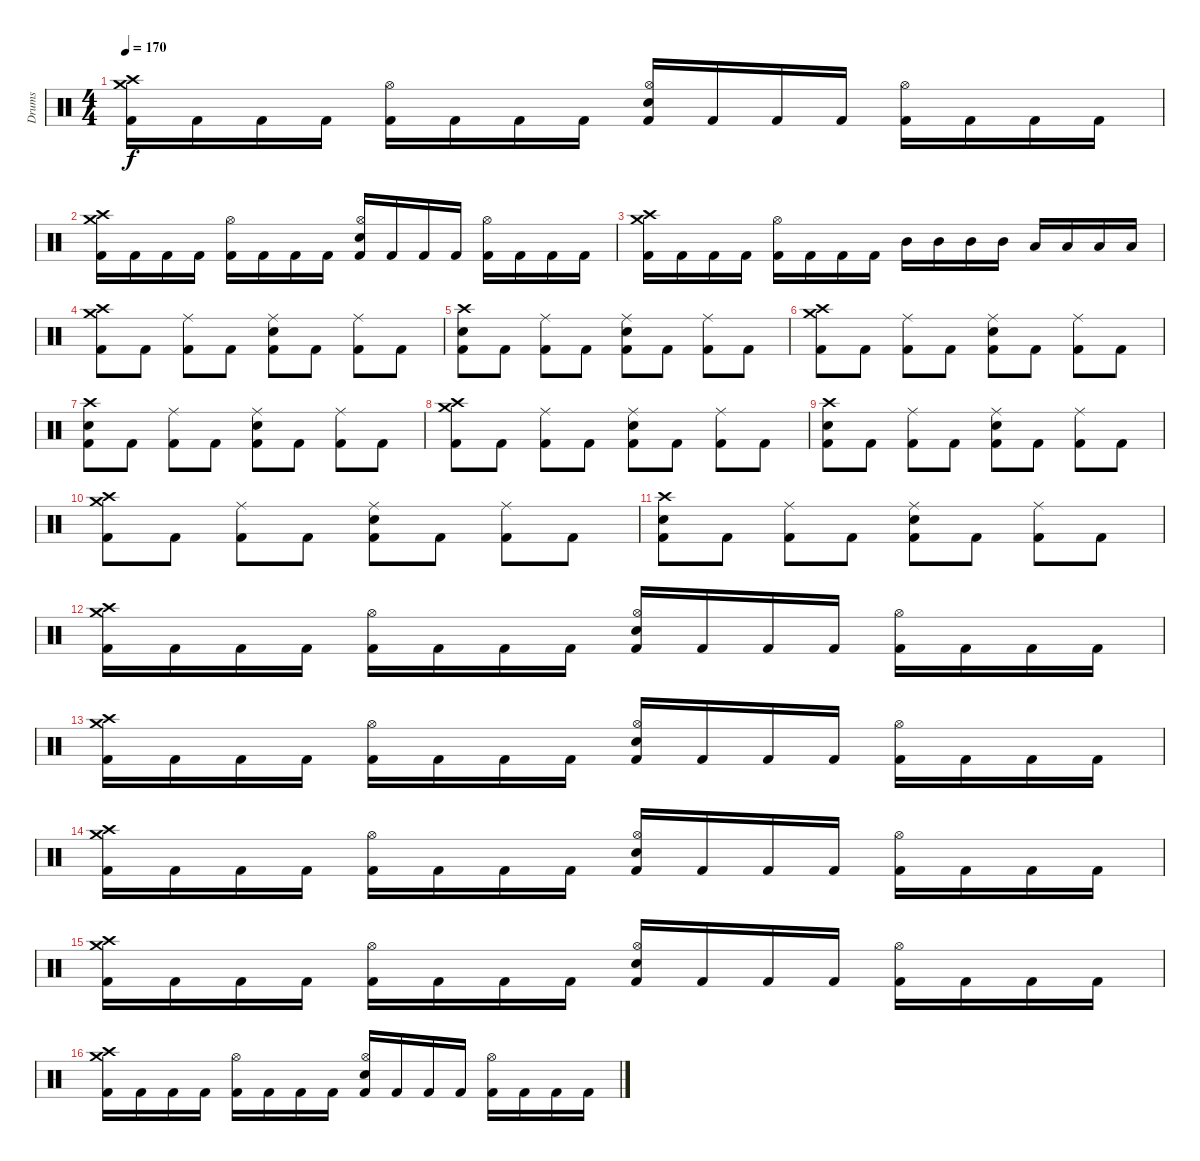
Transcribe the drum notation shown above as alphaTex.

\track ("Drums" "Drums") {instrument percussion}
\staff {score}
\articulation defaults
\ts (4 4)
\tempo 170
\clef neutral
\ks c
("Crash medium (hit)" "Crash high (hit)" "Kick (hit) 2").16{dy f} "Kick (hit) 2".16 "Kick (hit) 2".16 "Kick (hit) 2".16 ("Hi-Hat (open)" "Kick (hit) 2").16 "Kick (hit) 2".16 "Kick (hit) 2".16 "Kick (hit) 2".16 ("Hi-Hat (open)" "Snare (hit) 2" "Kick (hit) 2").16 "Kick (hit) 2".16 "Kick (hit) 2".16 "Kick (hit) 2".16 ("Hi-Hat (open)" "Kick (hit) 2").16 "Kick (hit) 2".16 "Kick (hit) 2".16 "Kick (hit) 2".16 |
("Crash medium (hit)" "Crash high (hit)" "Kick (hit) 2").16 "Kick (hit) 2".16 "Kick (hit) 2".16 "Kick (hit) 2".16 ("Hi-Hat (open)" "Kick (hit) 2").16 "Kick (hit) 2".16 "Kick (hit) 2".16 "Kick (hit) 2".16 ("Hi-Hat (open)" "Snare (hit) 2" "Kick (hit) 2").16 "Kick (hit) 2".16 "Kick (hit) 2".16 "Kick (hit) 2".16 ("Hi-Hat (open)" "Kick (hit) 2").16 "Kick (hit) 2".16 "Kick (hit) 2".16 "Kick (hit) 2".16 |
("Crash medium (hit)" "Crash high (hit)" "Kick (hit) 2").16 "Kick (hit) 2".16 "Kick (hit) 2".16 "Kick (hit) 2".16 ("Hi-Hat (open)" "Kick (hit) 2").16 "Kick (hit) 2".16 "Kick (hit) 2".16 "Kick (hit) 2".16 "Mid Tom (hit)".16 "Mid Tom (hit)".16 "Mid Tom (hit)".16 "Mid Tom (hit)".16 "Low Tom (hit)".16 "Low Tom (hit)".16 "Low Tom (hit)".16 "Low Tom (hit)".16 |
("Crash high (hit)" "Crash medium (hit)" "Kick (hit) 2").8 "Kick (hit) 2".8 ("Ride (middle)" "Kick (hit) 2").8 "Kick (hit) 2".8 ("Ride (middle)" "Snare (hit) 2" "Kick (hit) 2").8 "Kick (hit) 2".8 ("Ride (middle)" "Kick (hit) 2").8 "Kick (hit) 2".8 |
("Crash high (hit)" "Snare (hit) 2" "Kick (hit) 2").8 "Kick (hit) 2".8 ("Ride (middle)" "Kick (hit) 2").8 "Kick (hit) 2".8 ("Ride (middle)" "Snare (hit) 2" "Kick (hit) 2").8 "Kick (hit) 2".8 ("Ride (middle)" "Kick (hit) 2").8 "Kick (hit) 2".8 |
("Crash high (hit)" "Crash medium (hit)" "Kick (hit) 2").8 "Kick (hit) 2".8 ("Ride (middle)" "Kick (hit) 2").8 "Kick (hit) 2".8 ("Ride (middle)" "Snare (hit) 2" "Kick (hit) 2").8 "Kick (hit) 2".8 ("Ride (middle)" "Kick (hit) 2").8 "Kick (hit) 2".8 |
("Crash high (hit)" "Snare (hit) 2" "Kick (hit) 2").8 "Kick (hit) 2".8 ("Ride (middle)" "Kick (hit) 2").8 "Kick (hit) 2".8 ("Ride (middle)" "Snare (hit) 2" "Kick (hit) 2").8 "Kick (hit) 2".8 ("Ride (middle)" "Kick (hit) 2").8 "Kick (hit) 2".8 |
("Crash high (hit)" "Crash medium (hit)" "Kick (hit) 2").8 "Kick (hit) 2".8 ("Ride (middle)" "Kick (hit) 2").8 "Kick (hit) 2".8 ("Ride (middle)" "Snare (hit) 2" "Kick (hit) 2").8 "Kick (hit) 2".8 ("Ride (middle)" "Kick (hit) 2").8 "Kick (hit) 2".8 |
("Crash high (hit)" "Snare (hit) 2" "Kick (hit) 2").8 "Kick (hit) 2".8 ("Ride (middle)" "Kick (hit) 2").8 "Kick (hit) 2".8 ("Ride (middle)" "Snare (hit) 2" "Kick (hit) 2").8 "Kick (hit) 2".8 ("Ride (middle)" "Kick (hit) 2").8 "Kick (hit) 2".8 |
("Crash high (hit)" "Crash medium (hit)" "Kick (hit) 2").8 "Kick (hit) 2".8 ("Ride (middle)" "Kick (hit) 2").8 "Kick (hit) 2".8 ("Ride (middle)" "Snare (hit) 2" "Kick (hit) 2").8 "Kick (hit) 2".8 ("Ride (middle)" "Kick (hit) 2").8 "Kick (hit) 2".8 |
("Crash high (hit)" "Snare (hit) 2" "Kick (hit) 2").8 "Kick (hit) 2".8 ("Ride (middle)" "Kick (hit) 2").8 "Kick (hit) 2".8 ("Ride (middle)" "Snare (hit) 2" "Kick (hit) 2").8 "Kick (hit) 2".8 ("Ride (middle)" "Kick (hit) 2").8 "Kick (hit) 2".8 |
("Crash medium (hit)" "Crash high (hit)" "Kick (hit) 2").16 "Kick (hit) 2".16 "Kick (hit) 2".16 "Kick (hit) 2".16 ("Hi-Hat (open)" "Kick (hit) 2").16 "Kick (hit) 2".16 "Kick (hit) 2".16 "Kick (hit) 2".16 ("Hi-Hat (open)" "Snare (hit) 2" "Kick (hit) 2").16 "Kick (hit) 2".16 "Kick (hit) 2".16 "Kick (hit) 2".16 ("Hi-Hat (open)" "Kick (hit) 2").16 "Kick (hit) 2".16 "Kick (hit) 2".16 "Kick (hit) 2".16 |
("Crash medium (hit)" "Crash high (hit)" "Kick (hit) 2").16 "Kick (hit) 2".16 "Kick (hit) 2".16 "Kick (hit) 2".16 ("Hi-Hat (open)" "Kick (hit) 2").16 "Kick (hit) 2".16 "Kick (hit) 2".16 "Kick (hit) 2".16 ("Hi-Hat (open)" "Snare (hit) 2" "Kick (hit) 2").16 "Kick (hit) 2".16 "Kick (hit) 2".16 "Kick (hit) 2".16 ("Hi-Hat (open)" "Kick (hit) 2").16 "Kick (hit) 2".16 "Kick (hit) 2".16 "Kick (hit) 2".16 |
("Crash medium (hit)" "Crash high (hit)" "Kick (hit) 2").16 "Kick (hit) 2".16 "Kick (hit) 2".16 "Kick (hit) 2".16 ("Hi-Hat (open)" "Kick (hit) 2").16 "Kick (hit) 2".16 "Kick (hit) 2".16 "Kick (hit) 2".16 ("Hi-Hat (open)" "Snare (hit) 2" "Kick (hit) 2").16 "Kick (hit) 2".16 "Kick (hit) 2".16 "Kick (hit) 2".16 ("Hi-Hat (open)" "Kick (hit) 2").16 "Kick (hit) 2".16 "Kick (hit) 2".16 "Kick (hit) 2".16 |
("Crash medium (hit)" "Crash high (hit)" "Kick (hit) 2").16 "Kick (hit) 2".16 "Kick (hit) 2".16 "Kick (hit) 2".16 ("Hi-Hat (open)" "Kick (hit) 2").16 "Kick (hit) 2".16 "Kick (hit) 2".16 "Kick (hit) 2".16 ("Hi-Hat (open)" "Snare (hit) 2" "Kick (hit) 2").16 "Kick (hit) 2".16 "Kick (hit) 2".16 "Kick (hit) 2".16 ("Hi-Hat (open)" "Kick (hit) 2").16 "Kick (hit) 2".16 "Kick (hit) 2".16 "Kick (hit) 2".16 |
("Crash medium (hit)" "Crash high (hit)" "Kick (hit) 2").16 "Kick (hit) 2".16 "Kick (hit) 2".16 "Kick (hit) 2".16 ("Hi-Hat (open)" "Kick (hit) 2").16 "Kick (hit) 2".16 "Kick (hit) 2".16 "Kick (hit) 2".16 ("Hi-Hat (open)" "Snare (hit) 2" "Kick (hit) 2").16 "Kick (hit) 2".16 "Kick (hit) 2".16 "Kick (hit) 2".16 ("Hi-Hat (open)" "Kick (hit) 2").16 "Kick (hit) 2".16 "Kick (hit) 2".16 "Kick (hit) 2".16
